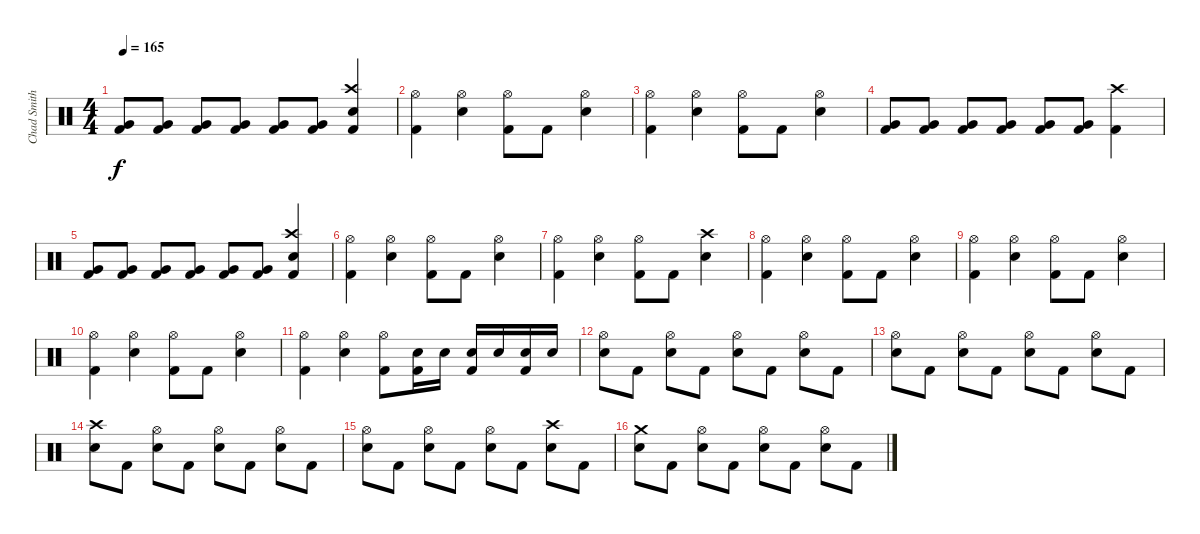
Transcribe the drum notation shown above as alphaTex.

\track ("Chad Smith" "Chad Smith") {instrument percussion}
\staff {score}
\articulation defaults
\ts (4 4)
\tempo 165
\clef neutral
\ks c
("Kick (hit) 2" "Very Low Tom (hit)").8{dy f} ("Kick (hit) 2" "Very Low Tom (hit)").8 ("Kick (hit) 2" "Very Low Tom (hit)").8 ("Kick (hit) 2" "Very Low Tom (hit)").8 ("Kick (hit) 2" "Very Low Tom (hit)").8 ("Kick (hit) 2" "Very Low Tom (hit)").8 ("Crash high (hit)" "Kick (hit) 2" "Snare (hit) 2").4 |
("Hi-Hat (open)" "Kick (hit) 2").4 ("Hi-Hat (open)" "Snare (hit) 2").4 ("Hi-Hat (open)" "Kick (hit) 2").8 "Kick (hit) 2".8 ("Hi-Hat (open)" "Snare (hit) 2").4 |
("Hi-Hat (open)" "Kick (hit) 2").4 ("Hi-Hat (open)" "Snare (hit) 2").4 ("Hi-Hat (open)" "Kick (hit) 2").8 "Kick (hit) 2".8 ("Hi-Hat (open)" "Snare (hit) 2").4 |
("Kick (hit) 2" "Very Low Tom (hit)").8 ("Kick (hit) 2" "Very Low Tom (hit)").8 ("Kick (hit) 2" "Very Low Tom (hit)").8 ("Kick (hit) 2" "Very Low Tom (hit)").8 ("Kick (hit) 2" "Very Low Tom (hit)").8 ("Kick (hit) 2" "Very Low Tom (hit)").8 ("Crash high (hit)" "Kick (hit) 2").4 |
("Kick (hit) 2" "Very Low Tom (hit)").8 ("Kick (hit) 2" "Very Low Tom (hit)").8 ("Kick (hit) 2" "Very Low Tom (hit)").8 ("Kick (hit) 2" "Very Low Tom (hit)").8 ("Kick (hit) 2" "Very Low Tom (hit)").8 ("Kick (hit) 2" "Very Low Tom (hit)").8 ("Crash high (hit)" "Kick (hit) 2" "Snare (hit) 2").4 |
("Hi-Hat (open)" "Kick (hit) 2").4 ("Hi-Hat (open)" "Snare (hit) 2").4 ("Hi-Hat (open)" "Kick (hit) 2").8 "Kick (hit) 2".8 ("Hi-Hat (open)" "Snare (hit) 2").4 |
("Hi-Hat (open)" "Kick (hit) 2").4 ("Hi-Hat (open)" "Snare (hit) 2").4 ("Hi-Hat (open)" "Kick (hit) 2").8 "Kick (hit) 2".8 ("Crash high (hit)" "Snare (hit) 2").4 |
("Hi-Hat (open)" "Kick (hit) 2").4 ("Hi-Hat (open)" "Snare (hit) 2").4 ("Hi-Hat (open)" "Kick (hit) 2").8 "Kick (hit) 2".8 ("Hi-Hat (open)" "Snare (hit) 2").4 |
("Hi-Hat (open)" "Kick (hit) 2").4 ("Hi-Hat (open)" "Snare (hit) 2").4 ("Hi-Hat (open)" "Kick (hit) 2").8 "Kick (hit) 2".8 ("Hi-Hat (open)" "Snare (hit) 2").4 |
("Hi-Hat (open)" "Kick (hit) 2").4 ("Hi-Hat (open)" "Snare (hit) 2").4 ("Hi-Hat (open)" "Kick (hit) 2").8 "Kick (hit) 2".8 ("Hi-Hat (open)" "Snare (hit) 2").4 |
("Hi-Hat (open)" "Kick (hit) 2").4 ("Hi-Hat (open)" "Snare (hit) 2").4 ("Hi-Hat (open)" "Kick (hit) 2").8 ("Snare (hit) 2" "Kick (hit) 2").16 "Snare (hit) 2".16 ("Snare (hit) 2" "Kick (hit) 2").16 "Snare (hit) 2".16 ("Snare (hit) 2" "Kick (hit) 2").16 "Snare (hit) 2".16 |
("Hi-Hat (open)" "Snare (hit) 2").8 "Kick (hit) 2".8 ("Hi-Hat (open)" "Snare (hit) 2").8 "Kick (hit) 2".8 ("Hi-Hat (open)" "Snare (hit) 2").8 "Kick (hit) 2".8 ("Hi-Hat (open)" "Snare (hit) 2").8 "Kick (hit) 2".8 |
("Hi-Hat (open)" "Snare (hit) 2").8 "Kick (hit) 2".8 ("Hi-Hat (open)" "Snare (hit) 2").8 "Kick (hit) 2".8 ("Hi-Hat (open)" "Snare (hit) 2").8 "Kick (hit) 2".8 ("Hi-Hat (open)" "Snare (hit) 2").8 "Kick (hit) 2".8 |
("Crash high (hit)" "Snare (hit) 2").8 "Kick (hit) 2".8 ("Hi-Hat (open)" "Snare (hit) 2").8 "Kick (hit) 2".8 ("Hi-Hat (open)" "Snare (hit) 2").8 "Kick (hit) 2".8 ("Hi-Hat (open)" "Snare (hit) 2").8 "Kick (hit) 2".8 |
("Hi-Hat (open)" "Snare (hit) 2").8 "Kick (hit) 2".8 ("Hi-Hat (open)" "Snare (hit) 2").8 "Kick (hit) 2".8 ("Hi-Hat (open)" "Snare (hit) 2").8 "Kick (hit) 2".8 ("Crash high (hit)" "Snare (hit) 2").8 "Kick (hit) 2".8 |
("Crash medium (hit)" "Snare (hit) 2").8 "Kick (hit) 2".8 ("Hi-Hat (open)" "Snare (hit) 2").8 "Kick (hit) 2".8 ("Hi-Hat (open)" "Snare (hit) 2").8 "Kick (hit) 2".8 ("Hi-Hat (open)" "Snare (hit) 2").8 "Kick (hit) 2".8
